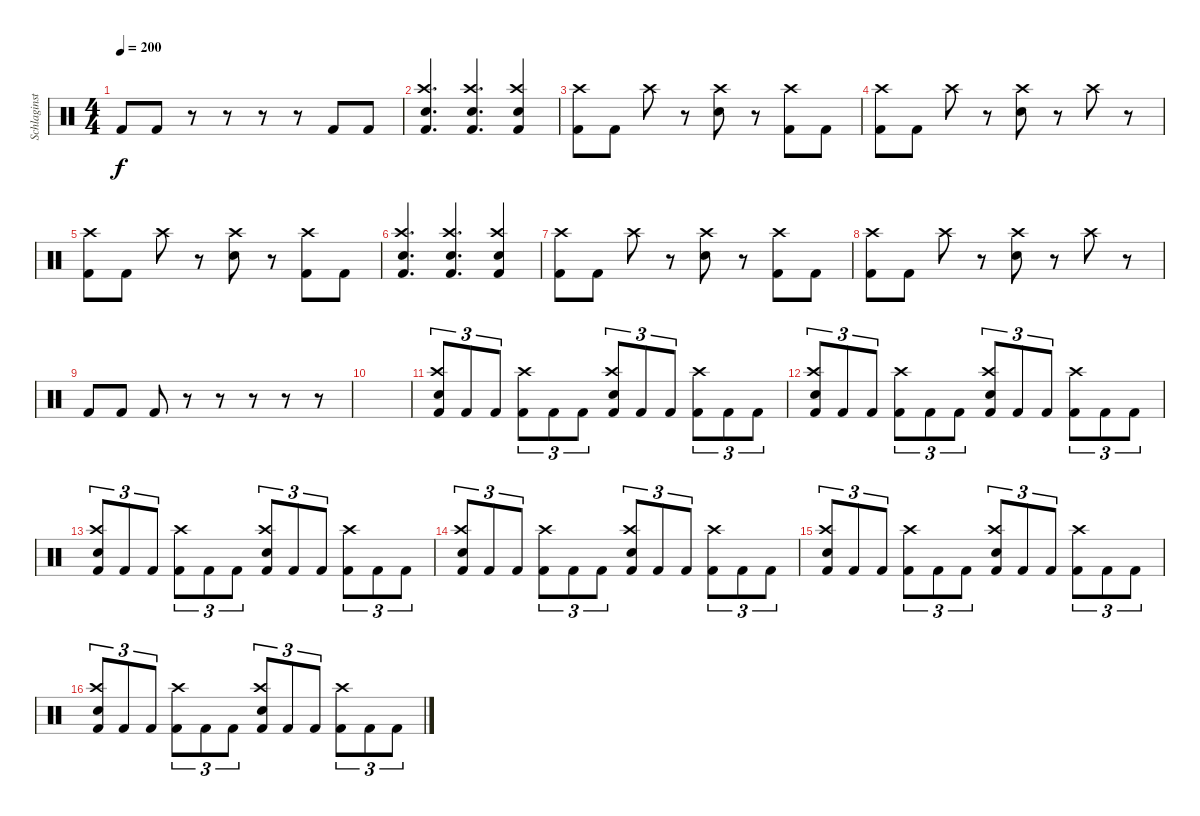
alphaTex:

\track ("Schlaginstrumente - Auswahl" "Schlaginst") {instrument percussion}
\staff {score}
\articulation defaults
\ts (4 4)
\tempo 200
\clef neutral
\ks c "Kick (hit) 2".8{dy f} "Kick (hit) 2".8
r.8 r.8 r.8 r.8 "Kick (hit) 2".8 "Kick (hit) 2".8 |
("Crash high (hit)" "Electric Snare (hit)" "Kick (hit) 2").4{d} ("Crash high (hit)" "Electric Snare (hit)" "Kick (hit) 2").4{d} ("Crash high (hit)" "Electric Snare (hit)" "Kick (hit) 2").4 |
("Crash high (hit)" "Kick (hit) 2").8 "Kick (hit) 2".8 "Crash high (hit)".8 r.8 ("Crash high (hit)" "Electric Snare (hit)").8 r.8 ("Crash high (hit)" "Kick (hit) 2").8 "Kick (hit) 2".8 |
("Crash high (hit)" "Kick (hit) 2").8 "Kick (hit) 2".8 "Crash high (hit)".8 r.8 ("Crash high (hit)" "Electric Snare (hit)").8 r.8 "Crash high (hit)".8 r.8 |
("Crash high (hit)" "Kick (hit) 2").8 "Kick (hit) 2".8 "Crash high (hit)".8 r.8 ("Crash high (hit)" "Electric Snare (hit)").8 r.8 ("Crash high (hit)" "Kick (hit) 2").8 "Kick (hit) 2".8 |
("Crash high (hit)" "Electric Snare (hit)" "Kick (hit) 2").4{d} ("Crash high (hit)" "Electric Snare (hit)" "Kick (hit) 2").4{d} ("Crash high (hit)" "Electric Snare (hit)" "Kick (hit) 2").4 |
("Crash high (hit)" "Kick (hit) 2").8 "Kick (hit) 2".8 "Crash high (hit)".8 r.8 ("Crash high (hit)" "Electric Snare (hit)").8 r.8 ("Crash high (hit)" "Kick (hit) 2").8 "Kick (hit) 2".8 |
("Crash high (hit)" "Kick (hit) 2").8 "Kick (hit) 2".8 "Crash high (hit)".8 r.8 ("Crash high (hit)" "Electric Snare (hit)").8 r.8 "Crash high (hit)".8 r.8 |
"Kick (hit) 2".8 "Kick (hit) 2".8 "Kick (hit) 2".8 r.8 r.8 r.8 r.8 r.8 |
|
("Crash high (hit)" "Electric Snare (hit)" "Kick (hit) 2").8{tu (3 2)} "Kick (hit) 2".8{tu (3 2)} "Kick (hit) 2".8{tu (3 2)} ("Crash high (hit)" "Kick (hit) 2").8{tu (3 2)} "Kick (hit) 2".8{tu (3 2)} "Kick (hit) 2".8{tu (3 2)} ("Crash high (hit)" "Electric Snare (hit)" "Kick (hit) 2").8{tu (3 2)} "Kick (hit) 2".8{tu (3 2)} "Kick (hit) 2".8{tu (3 2)} ("Crash high (hit)" "Kick (hit) 2").8{tu (3 2)} "Kick (hit) 2".8{tu (3 2)} "Kick (hit) 2".8{tu (3 2)} |
("Crash high (hit)" "Electric Snare (hit)" "Kick (hit) 2").8{tu (3 2)} "Kick (hit) 2".8{tu (3 2)} "Kick (hit) 2".8{tu (3 2)} ("Crash high (hit)" "Kick (hit) 2").8{tu (3 2)} "Kick (hit) 2".8{tu (3 2)} "Kick (hit) 2".8{tu (3 2)} ("Crash high (hit)" "Electric Snare (hit)" "Kick (hit) 2").8{tu (3 2)} "Kick (hit) 2".8{tu (3 2)} "Kick (hit) 2".8{tu (3 2)} ("Crash high (hit)" "Kick (hit) 2").8{tu (3 2)} "Kick (hit) 2".8{tu (3 2)} "Kick (hit) 2".8{tu (3 2)} |
("Crash high (hit)" "Electric Snare (hit)" "Kick (hit) 2").8{tu (3 2)} "Kick (hit) 2".8{tu (3 2)} "Kick (hit) 2".8{tu (3 2)} ("Crash high (hit)" "Kick (hit) 2").8{tu (3 2)} "Kick (hit) 2".8{tu (3 2)} "Kick (hit) 2".8{tu (3 2)} ("Crash high (hit)" "Electric Snare (hit)" "Kick (hit) 2").8{tu (3 2)} "Kick (hit) 2".8{tu (3 2)} "Kick (hit) 2".8{tu (3 2)} ("Crash high (hit)" "Kick (hit) 2").8{tu (3 2)} "Kick (hit) 2".8{tu (3 2)} "Kick (hit) 2".8{tu (3 2)} |
("Crash high (hit)" "Electric Snare (hit)" "Kick (hit) 2").8{tu (3 2)} "Kick (hit) 2".8{tu (3 2)} "Kick (hit) 2".8{tu (3 2)} ("Crash high (hit)" "Kick (hit) 2").8{tu (3 2)} "Kick (hit) 2".8{tu (3 2)} "Kick (hit) 2".8{tu (3 2)} ("Crash high (hit)" "Electric Snare (hit)" "Kick (hit) 2").8{tu (3 2)} "Kick (hit) 2".8{tu (3 2)} "Kick (hit) 2".8{tu (3 2)} ("Crash high (hit)" "Kick (hit) 2").8{tu (3 2)} "Kick (hit) 2".8{tu (3 2)} "Kick (hit) 2".8{tu (3 2)} |
("Crash high (hit)" "Electric Snare (hit)" "Kick (hit) 2").8{tu (3 2)} "Kick (hit) 2".8{tu (3 2)} "Kick (hit) 2".8{tu (3 2)} ("Crash high (hit)" "Kick (hit) 2").8{tu (3 2)} "Kick (hit) 2".8{tu (3 2)} "Kick (hit) 2".8{tu (3 2)} ("Crash high (hit)" "Electric Snare (hit)" "Kick (hit) 2").8{tu (3 2)} "Kick (hit) 2".8{tu (3 2)} "Kick (hit) 2".8{tu (3 2)} ("Crash high (hit)" "Kick (hit) 2").8{tu (3 2)} "Kick (hit) 2".8{tu (3 2)} "Kick (hit) 2".8{tu (3 2)} |
("Crash high (hit)" "Electric Snare (hit)" "Kick (hit) 2").8{tu (3 2)} "Kick (hit) 2".8{tu (3 2)} "Kick (hit) 2".8{tu (3 2)} ("Crash high (hit)" "Kick (hit) 2").8{tu (3 2)} "Kick (hit) 2".8{tu (3 2)} "Kick (hit) 2".8{tu (3 2)} ("Crash high (hit)" "Electric Snare (hit)" "Kick (hit) 2").8{tu (3 2)} "Kick (hit) 2".8{tu (3 2)} "Kick (hit) 2".8{tu (3 2)} ("Crash high (hit)" "Kick (hit) 2").8{tu (3 2)} "Kick (hit) 2".8{tu (3 2)} "Kick (hit) 2".8{tu (3 2)}
